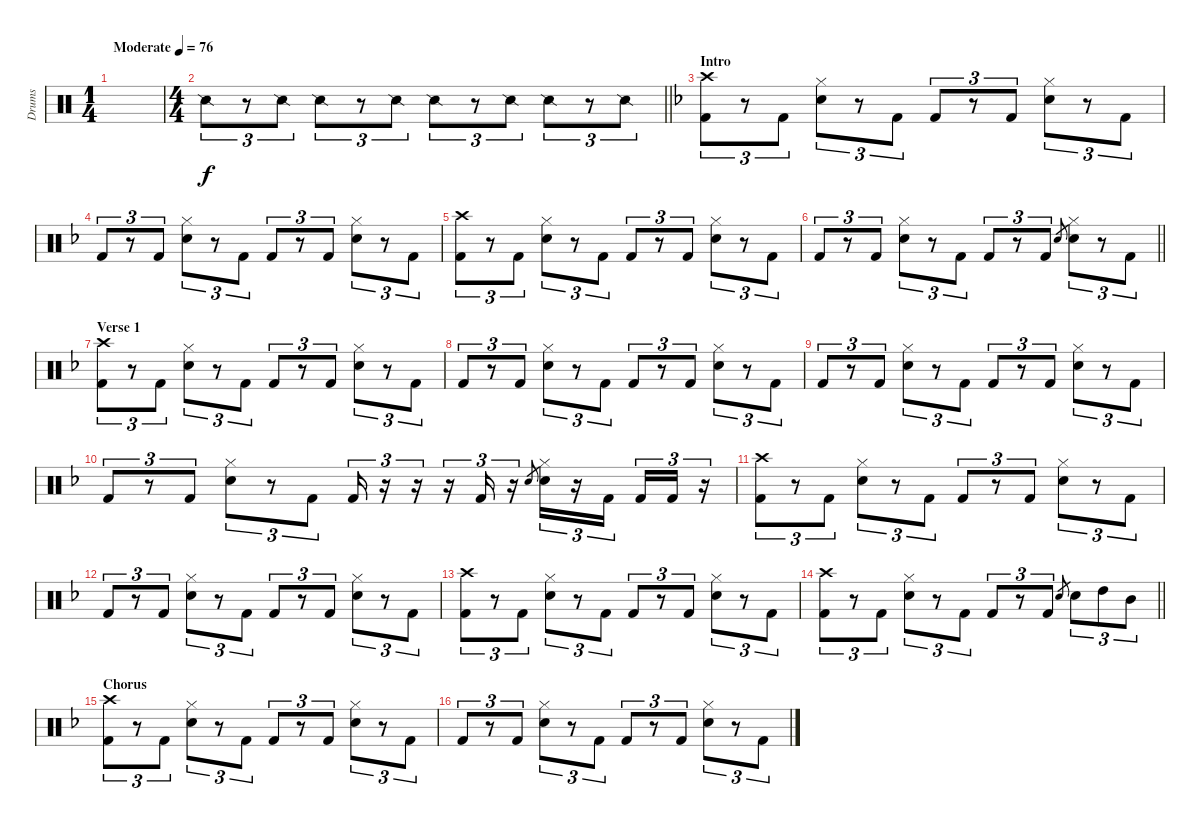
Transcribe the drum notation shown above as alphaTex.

\track ("Drums" "Drums") {instrument percussion}
\staff {score}
\articulation defaults
\ts (1 4)
\tempo (76 "Moderate")
\clef neutral
\ks c
|
\ts (4 4)
\barLineRight lightlight "Snare (side stick) 2".8{tu (3 2)}
r.8{tu (3 2)} "Snare (side stick) 2".8{tu (3 2)} "Snare (side stick) 2".8{tu (3 2)} r.8{tu (3 2)} "Snare (side stick) 2".8{tu (3 2)} "Snare (side stick) 2".8{tu (3 2)} r.8{tu (3 2)} "Snare (side stick) 2".8{tu (3 2)} "Snare (side stick) 2".8{tu (3 2)} r.8{tu (3 2)} "Snare (side stick) 2".8{tu (3 2)} |
\section ("" "Intro")
\ks f
("Crash high (hit)" "Kick (hit) 2").8{tu (3 2)} r.8{tu (3 2)} "Kick (hit) 2".8{tu (3 2)} ("Hi-Hat (closed)" "Electric Snare (hit)").8{tu (3 2)} r.8{tu (3 2)} "Kick (hit) 2".8{tu (3 2)} "Kick (hit) 2".8{tu (3 2)} r.8{tu (3 2)} "Kick (hit) 2".8{tu (3 2)} ("Hi-Hat (closed)" "Electric Snare (hit)").8{tu (3 2)} r.8{tu (3 2)} "Kick (hit) 2".8{tu (3 2)} |
"Kick (hit) 2".8{tu (3 2)} r.8{tu (3 2)} "Kick (hit) 2".8{tu (3 2)} ("Hi-Hat (closed)" "Electric Snare (hit)").8{tu (3 2)} r.8{tu (3 2)} "Kick (hit) 2".8{tu (3 2)} "Kick (hit) 2".8{tu (3 2)} r.8{tu (3 2)} "Kick (hit) 2".8{tu (3 2)} ("Hi-Hat (closed)" "Electric Snare (hit)").8{tu (3 2)} r.8{tu (3 2)} "Kick (hit) 2".8{tu (3 2)} |
("Crash high (hit)" "Kick (hit) 2").8{tu (3 2)} r.8{tu (3 2)} "Kick (hit) 2".8{tu (3 2)} ("Hi-Hat (closed)" "Electric Snare (hit)").8{tu (3 2)} r.8{tu (3 2)} "Kick (hit) 2".8{tu (3 2)} "Kick (hit) 2".8{tu (3 2)} r.8{tu (3 2)} "Kick (hit) 2".8{tu (3 2)} ("Hi-Hat (closed)" "Electric Snare (hit)").8{tu (3 2)} r.8{tu (3 2)} "Kick (hit) 2".8{tu (3 2)} |
\barLineRight lightlight "Kick (hit) 2".8{tu (3 2)}
r.8{tu (3 2)} "Kick (hit) 2".8{tu (3 2)} ("Hi-Hat (closed)" "Electric Snare (hit)").8{tu (3 2)} r.8{tu (3 2)} "Kick (hit) 2".8{tu (3 2)} "Kick (hit) 2".8{tu (3 2)} r.8{tu (3 2)} "Kick (hit) 2".8{tu (3 2)} "Electric Snare (hit)".8{gr} ("Hi-Hat (closed)" "Electric Snare (hit)").8{tu (3 2)} r.8{tu (3 2)} "Kick (hit) 2".8{tu (3 2)} |
\section ("" "Verse 1")
("Crash high (hit)" "Kick (hit) 2").8{tu (3 2)} r.8{tu (3 2)} "Kick (hit) 2".8{tu (3 2)} ("Hi-Hat (closed)" "Electric Snare (hit)").8{tu (3 2)} r.8{tu (3 2)} "Kick (hit) 2".8{tu (3 2)} "Kick (hit) 2".8{tu (3 2)} r.8{tu (3 2)} "Kick (hit) 2".8{tu (3 2)} ("Hi-Hat (closed)" "Electric Snare (hit)").8{tu (3 2)} r.8{tu (3 2)} "Kick (hit) 2".8{tu (3 2)} |
"Kick (hit) 2".8{tu (3 2)} r.8{tu (3 2)} "Kick (hit) 2".8{tu (3 2)} ("Hi-Hat (closed)" "Electric Snare (hit)").8{tu (3 2)} r.8{tu (3 2)} "Kick (hit) 2".8{tu (3 2)} "Kick (hit) 2".8{tu (3 2)} r.8{tu (3 2)} "Kick (hit) 2".8{tu (3 2)} ("Hi-Hat (closed)" "Electric Snare (hit)").8{tu (3 2)} r.8{tu (3 2)} "Kick (hit) 2".8{tu (3 2)} |
"Kick (hit) 2".8{tu (3 2)} r.8{tu (3 2)} "Kick (hit) 2".8{tu (3 2)} ("Hi-Hat (closed)" "Electric Snare (hit)").8{tu (3 2)} r.8{tu (3 2)} "Kick (hit) 2".8{tu (3 2)} "Kick (hit) 2".8{tu (3 2)} r.8{tu (3 2)} "Kick (hit) 2".8{tu (3 2)} ("Hi-Hat (closed)" "Electric Snare (hit)").8{tu (3 2)} r.8{tu (3 2)} "Kick (hit) 2".8{tu (3 2)} |
"Kick (hit) 2".8{tu (3 2)} r.8{tu (3 2)} "Kick (hit) 2".8{tu (3 2)} ("Hi-Hat (closed)" "Electric Snare (hit)").8{tu (3 2)} r.8{tu (3 2)} "Kick (hit) 2".8{tu (3 2)} "Kick (hit) 2".16{tu (3 2)} r.16{tu (3 2)} r.16{tu (3 2)} r.16{tu (3 2)} "Kick (hit) 2".16{tu (3 2)} r.16{tu (3 2)} "Electric Snare (hit)".8{gr} ("Hi-Hat (closed)" "Electric Snare (hit)").16{tu (3 2)} r.16{tu (3 2)} "Kick (hit) 2".16{tu (3 2) beam splitsecondary} "Kick (hit) 2".16{tu (3 2)} "Kick (hit) 2".16{tu (3 2)} r.16{tu (3 2)} |
("Crash high (hit)" "Kick (hit) 2").8{tu (3 2)} r.8{tu (3 2)} "Kick (hit) 2".8{tu (3 2)} ("Hi-Hat (closed)" "Electric Snare (hit)").8{tu (3 2)} r.8{tu (3 2)} "Kick (hit) 2".8{tu (3 2)} "Kick (hit) 2".8{tu (3 2)} r.8{tu (3 2)} "Kick (hit) 2".8{tu (3 2)} ("Hi-Hat (closed)" "Electric Snare (hit)").8{tu (3 2)} r.8{tu (3 2)} "Kick (hit) 2".8{tu (3 2)} |
"Kick (hit) 2".8{tu (3 2)} r.8{tu (3 2)} "Kick (hit) 2".8{tu (3 2)} ("Hi-Hat (closed)" "Electric Snare (hit)").8{tu (3 2)} r.8{tu (3 2)} "Kick (hit) 2".8{tu (3 2)} "Kick (hit) 2".8{tu (3 2)} r.8{tu (3 2)} "Kick (hit) 2".8{tu (3 2)} ("Hi-Hat (closed)" "Electric Snare (hit)").8{tu (3 2)} r.8{tu (3 2)} "Kick (hit) 2".8{tu (3 2)} |
("Crash high (hit)" "Kick (hit) 2").8{tu (3 2)} r.8{tu (3 2)} "Kick (hit) 2".8{tu (3 2)} ("Hi-Hat (closed)" "Electric Snare (hit)").8{tu (3 2)} r.8{tu (3 2)} "Kick (hit) 2".8{tu (3 2)} "Kick (hit) 2".8{tu (3 2)} r.8{tu (3 2)} "Kick (hit) 2".8{tu (3 2)} ("Hi-Hat (closed)" "Electric Snare (hit)").8{tu (3 2)} r.8{tu (3 2)} "Kick (hit) 2".8{tu (3 2)} |
\barLineRight lightlight
("Crash high (hit)" "Kick (hit) 2").8{tu (3 2)} r.8{tu (3 2)} "Kick (hit) 2".8{tu (3 2)} ("Hi-Hat (closed)" "Electric Snare (hit)").8{tu (3 2)} r.8{tu (3 2)} "Kick (hit) 2".8{tu (3 2)} "Kick (hit) 2".8{tu (3 2)} r.8{tu (3 2)} "Kick (hit) 2".8{tu (3 2)} "Electric Snare (hit)".8{gr} "Electric Snare (hit)".8{tu (3 2)} "High Tom (hit)".8{tu (3 2)} "Mid Tom (hit)".8{tu (3 2)} |
\section ("" "Chorus")
("Crash high (hit)" "Kick (hit) 2").8{tu (3 2)} r.8{tu (3 2)} "Kick (hit) 2".8{tu (3 2)} ("Hi-Hat (closed)" "Electric Snare (hit)").8{tu (3 2)} r.8{tu (3 2)} "Kick (hit) 2".8{tu (3 2)} "Kick (hit) 2".8{tu (3 2)} r.8{tu (3 2)} "Kick (hit) 2".8{tu (3 2)} ("Hi-Hat (closed)" "Electric Snare (hit)").8{tu (3 2)} r.8{tu (3 2)} "Kick (hit) 2".8{tu (3 2)} |
"Kick (hit) 2".8{tu (3 2)} r.8{tu (3 2)} "Kick (hit) 2".8{tu (3 2)} ("Hi-Hat (closed)" "Electric Snare (hit)").8{tu (3 2)} r.8{tu (3 2)} "Kick (hit) 2".8{tu (3 2)} "Kick (hit) 2".8{tu (3 2)} r.8{tu (3 2)} "Kick (hit) 2".8{tu (3 2)} ("Hi-Hat (closed)" "Electric Snare (hit)").8{tu (3 2)} r.8{tu (3 2)} "Kick (hit) 2".8{tu (3 2)}
